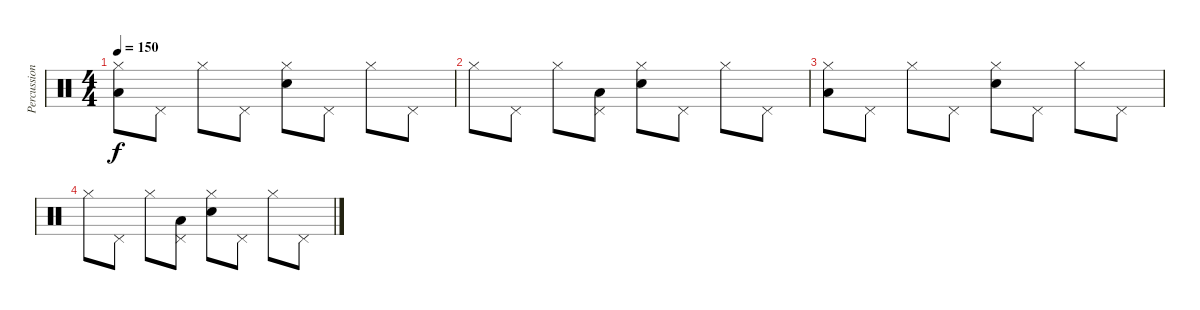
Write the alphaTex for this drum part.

\track ("Percussion" "Percussion") {instrument percussion}
\staff {score}
\articulation defaults
\ts (4 4)
\tempo 150
\clef neutral
\ks c
("Hi-Hat (closed)" "Low Floor Tom (hit)").8{dy f} "Pedal Hi-Hat (hit)".8 "Hi-Hat (closed)".8 "Pedal Hi-Hat (hit)".8 ("Hi-Hat (closed)" "Electric Snare (hit)").8 "Pedal Hi-Hat (hit)".8 "Hi-Hat (closed)".8 "Pedal Hi-Hat (hit)".8 |
"Hi-Hat (closed)".8 "Pedal Hi-Hat (hit)".8 "Hi-Hat (closed)".8 ("Pedal Hi-Hat (hit)" "Low Floor Tom (hit)").8 ("Hi-Hat (closed)" "Electric Snare (hit)").8 "Pedal Hi-Hat (hit)".8 "Hi-Hat (closed)".8 "Pedal Hi-Hat (hit)".8 |
("Hi-Hat (closed)" "Low Floor Tom (hit)").8 "Pedal Hi-Hat (hit)".8 "Hi-Hat (closed)".8 "Pedal Hi-Hat (hit)".8 ("Hi-Hat (closed)" "Electric Snare (hit)").8 "Pedal Hi-Hat (hit)".8 "Hi-Hat (closed)".8 "Pedal Hi-Hat (hit)".8 |
"Hi-Hat (closed)".8 "Pedal Hi-Hat (hit)".8 "Hi-Hat (closed)".8 ("Pedal Hi-Hat (hit)" "Low Floor Tom (hit)").8 ("Hi-Hat (closed)" "Electric Snare (hit)").8 "Pedal Hi-Hat (hit)".8 "Hi-Hat (closed)".8 "Pedal Hi-Hat (hit)".8
